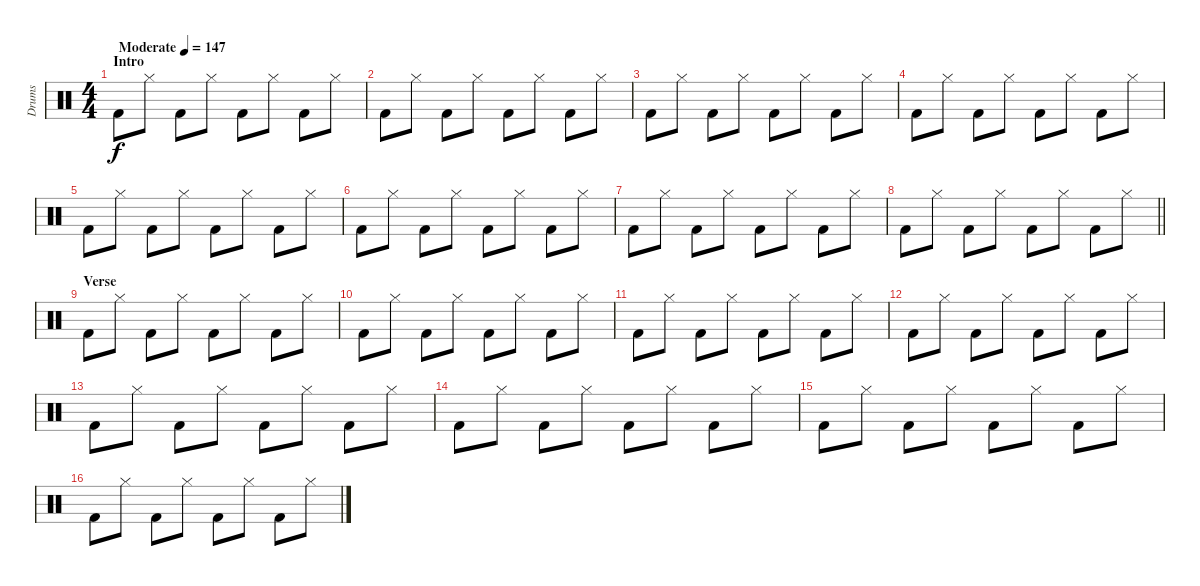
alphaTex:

\track ("Drums" "Drums") {instrument percussion}
\staff {score}
\articulation defaults
\ts (4 4)
\section ("" "Intro")
\tempo (147 "Moderate")
\clef neutral
\ks c "Kick (hit) 2".8{dy f} "Hi-Hat (closed)".8 "Kick (hit) 2".8 "Hi-Hat (closed)".8 "Kick (hit) 2".8 "Hi-Hat (closed)".8 "Kick (hit) 2".8 "Hi-Hat (closed)".8
|
"Kick (hit) 2".8 "Hi-Hat (closed)".8 "Kick (hit) 2".8 "Hi-Hat (closed)".8 "Kick (hit) 2".8 "Hi-Hat (closed)".8 "Kick (hit) 2".8 "Hi-Hat (closed)".8 |
"Kick (hit) 2".8 "Hi-Hat (closed)".8 "Kick (hit) 2".8 "Hi-Hat (closed)".8 "Kick (hit) 2".8 "Hi-Hat (closed)".8 "Kick (hit) 2".8 "Hi-Hat (closed)".8 |
"Kick (hit) 2".8 "Hi-Hat (closed)".8 "Kick (hit) 2".8 "Hi-Hat (closed)".8 "Kick (hit) 2".8 "Hi-Hat (closed)".8 "Kick (hit) 2".8 "Hi-Hat (closed)".8 |
"Kick (hit) 2".8 "Hi-Hat (closed)".8 "Kick (hit) 2".8 "Hi-Hat (closed)".8 "Kick (hit) 2".8 "Hi-Hat (closed)".8 "Kick (hit) 2".8 "Hi-Hat (closed)".8 |
"Kick (hit) 2".8 "Hi-Hat (closed)".8 "Kick (hit) 2".8 "Hi-Hat (closed)".8 "Kick (hit) 2".8 "Hi-Hat (closed)".8 "Kick (hit) 2".8 "Hi-Hat (closed)".8 |
"Kick (hit) 2".8 "Hi-Hat (closed)".8 "Kick (hit) 2".8 "Hi-Hat (closed)".8 "Kick (hit) 2".8 "Hi-Hat (closed)".8 "Kick (hit) 2".8 "Hi-Hat (closed)".8 |
\barLineRight lightlight "Kick (hit) 2".8 "Hi-Hat (closed)".8 "Kick (hit) 2".8 "Hi-Hat (closed)".8 "Kick (hit) 2".8 "Hi-Hat (closed)".8 "Kick (hit) 2".8 "Hi-Hat (closed)".8
|
\section ("" "Verse")
"Kick (hit) 2".8 "Hi-Hat (closed)".8 "Kick (hit) 2".8 "Hi-Hat (closed)".8 "Kick (hit) 2".8 "Hi-Hat (closed)".8 "Kick (hit) 2".8 "Hi-Hat (closed)".8 |
"Kick (hit) 2".8 "Hi-Hat (closed)".8 "Kick (hit) 2".8 "Hi-Hat (closed)".8 "Kick (hit) 2".8 "Hi-Hat (closed)".8 "Kick (hit) 2".8 "Hi-Hat (closed)".8 |
"Kick (hit) 2".8 "Hi-Hat (closed)".8 "Kick (hit) 2".8 "Hi-Hat (closed)".8 "Kick (hit) 2".8 "Hi-Hat (closed)".8 "Kick (hit) 2".8 "Hi-Hat (closed)".8 |
"Kick (hit) 2".8 "Hi-Hat (closed)".8 "Kick (hit) 2".8 "Hi-Hat (closed)".8 "Kick (hit) 2".8 "Hi-Hat (closed)".8 "Kick (hit) 2".8 "Hi-Hat (closed)".8 |
"Kick (hit) 2".8 "Hi-Hat (closed)".8 "Kick (hit) 2".8 "Hi-Hat (closed)".8 "Kick (hit) 2".8 "Hi-Hat (closed)".8 "Kick (hit) 2".8 "Hi-Hat (closed)".8 |
"Kick (hit) 2".8 "Hi-Hat (closed)".8 "Kick (hit) 2".8 "Hi-Hat (closed)".8 "Kick (hit) 2".8 "Hi-Hat (closed)".8 "Kick (hit) 2".8 "Hi-Hat (closed)".8 |
"Kick (hit) 2".8 "Hi-Hat (closed)".8 "Kick (hit) 2".8 "Hi-Hat (closed)".8 "Kick (hit) 2".8 "Hi-Hat (closed)".8 "Kick (hit) 2".8 "Hi-Hat (closed)".8 |
"Kick (hit) 2".8 "Hi-Hat (closed)".8 "Kick (hit) 2".8 "Hi-Hat (closed)".8 "Kick (hit) 2".8 "Hi-Hat (closed)".8 "Kick (hit) 2".8 "Hi-Hat (closed)".8
